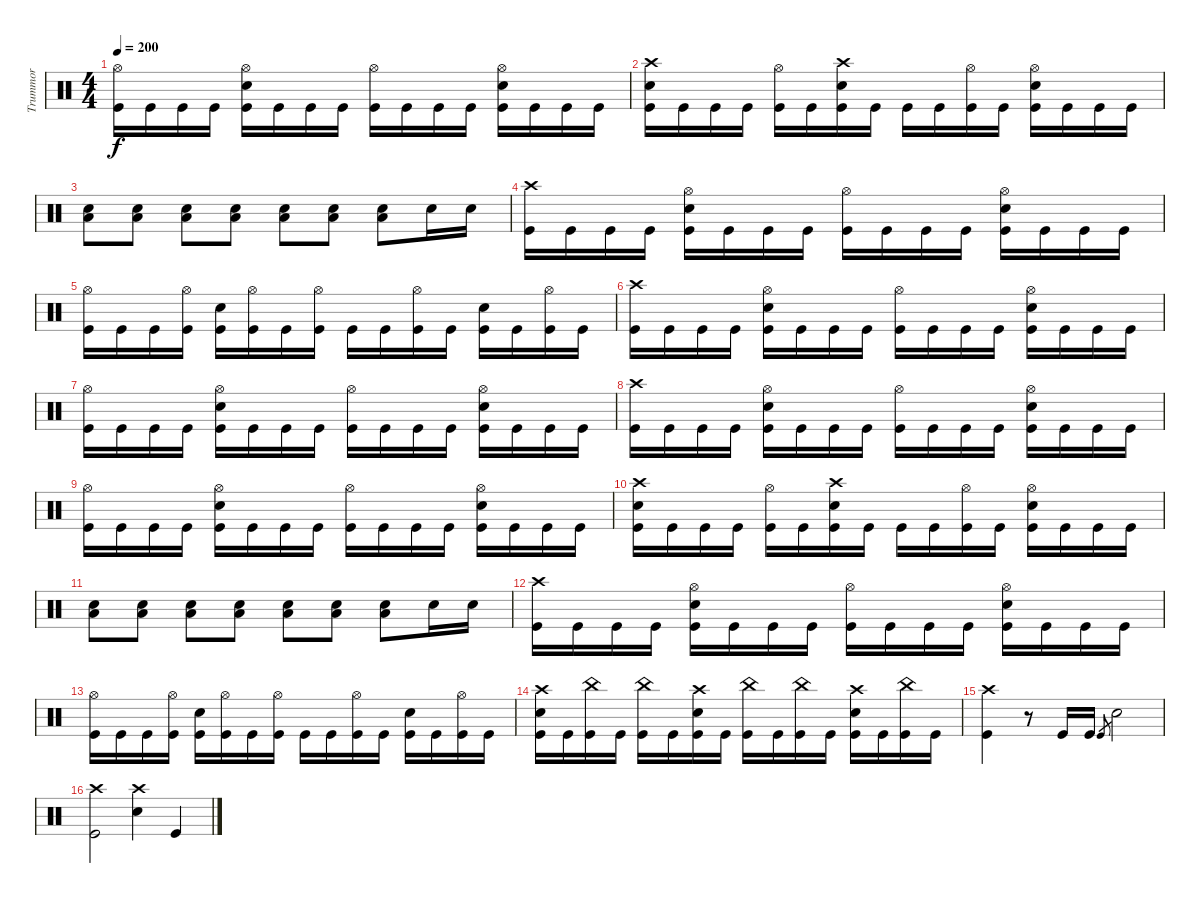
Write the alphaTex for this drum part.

\track ("Trummor" "Trummor") {instrument percussion}
\staff {score}
\articulation defaults
\ts (4 4)
\tempo 200
\clef neutral
\ks c
("Hi-Hat (open)" "Kick (hit)").16{dy f} "Kick (hit)".16 "Kick (hit)".16 "Kick (hit)".16 ("Hi-Hat (open)" "Electric Snare (hit)" "Kick (hit)").16 "Kick (hit)".16 "Kick (hit)".16 "Kick (hit)".16 ("Hi-Hat (open)" "Kick (hit)").16 "Kick (hit)".16 "Kick (hit)".16 "Kick (hit)".16 ("Hi-Hat (open)" "Electric Snare (hit)" "Kick (hit)").16 "Kick (hit)".16 "Kick (hit)".16 "Kick (hit)".16 |
("Crash high (hit)" "Electric Snare (hit)" "Kick (hit)").16 "Kick (hit)".16 "Kick (hit)".16 "Kick (hit)".16 ("Hi-Hat (open)" "Kick (hit)").16 "Kick (hit)".16 ("Crash high (hit)" "Electric Snare (hit)" "Kick (hit)").16 "Kick (hit)".16 "Kick (hit)".16 "Kick (hit)".16 ("Hi-Hat (open)" "Kick (hit)").16 "Kick (hit)".16 ("Hi-Hat (open)" "Electric Snare (hit)" "Kick (hit)").16 "Kick (hit)".16 "Kick (hit)".16 "Kick (hit)".16 |
("Electric Snare (hit)" "Low Floor Tom (hit)").8 ("Electric Snare (hit)" "Low Floor Tom (hit)").8 ("Electric Snare (hit)" "Low Floor Tom (hit)").8 ("Electric Snare (hit)" "Low Floor Tom (hit)").8 ("Electric Snare (hit)" "Low Floor Tom (hit)").8 ("Electric Snare (hit)" "Low Floor Tom (hit)").8 ("Electric Snare (hit)" "Low Floor Tom (hit)").8 "Electric Snare (hit)".16 "Electric Snare (hit)".16 |
("Crash high (hit)" "Kick (hit)").16 "Kick (hit)".16 "Kick (hit)".16 "Kick (hit)".16 ("Hi-Hat (open)" "Electric Snare (hit)" "Kick (hit)").16 "Kick (hit)".16 "Kick (hit)".16 "Kick (hit)".16 ("Hi-Hat (open)" "Kick (hit)").16 "Kick (hit)".16 "Kick (hit)".16 "Kick (hit)".16 ("Hi-Hat (open)" "Electric Snare (hit)" "Kick (hit)").16 "Kick (hit)".16 "Kick (hit)".16 "Kick (hit)".16 |
("Hi-Hat (open)" "Kick (hit)").16 "Kick (hit)".16 "Kick (hit)".16 ("Hi-Hat (open)" "Kick (hit)").16 ("Electric Snare (hit)" "Kick (hit)").16 ("Hi-Hat (open)" "Kick (hit)").16 "Kick (hit)".16 ("Hi-Hat (open)" "Kick (hit)").16 "Kick (hit)".16 "Kick (hit)".16 ("Hi-Hat (open)" "Kick (hit)").16 "Kick (hit)".16 ("Electric Snare (hit)" "Kick (hit)").16 "Kick (hit)".16 ("Hi-Hat (open)" "Kick (hit)").16 "Kick (hit)".16 |
("Crash high (hit)" "Kick (hit)").16 "Kick (hit)".16 "Kick (hit)".16 "Kick (hit)".16 ("Hi-Hat (open)" "Electric Snare (hit)" "Kick (hit)").16 "Kick (hit)".16 "Kick (hit)".16 "Kick (hit)".16 ("Hi-Hat (open)" "Kick (hit)").16 "Kick (hit)".16 "Kick (hit)".16 "Kick (hit)".16 ("Hi-Hat (open)" "Electric Snare (hit)" "Kick (hit)").16 "Kick (hit)".16 "Kick (hit)".16 "Kick (hit)".16 |
("Hi-Hat (open)" "Kick (hit)").16 "Kick (hit)".16 "Kick (hit)".16 "Kick (hit)".16 ("Hi-Hat (open)" "Electric Snare (hit)" "Kick (hit)").16 "Kick (hit)".16 "Kick (hit)".16 "Kick (hit)".16 ("Hi-Hat (open)" "Kick (hit)").16 "Kick (hit)".16 "Kick (hit)".16 "Kick (hit)".16 ("Hi-Hat (open)" "Electric Snare (hit)" "Kick (hit)").16 "Kick (hit)".16 "Kick (hit)".16 "Kick (hit)".16 |
("Crash high (hit)" "Kick (hit)").16 "Kick (hit)".16 "Kick (hit)".16 "Kick (hit)".16 ("Hi-Hat (open)" "Electric Snare (hit)" "Kick (hit)").16 "Kick (hit)".16 "Kick (hit)".16 "Kick (hit)".16 ("Hi-Hat (open)" "Kick (hit)").16 "Kick (hit)".16 "Kick (hit)".16 "Kick (hit)".16 ("Hi-Hat (open)" "Electric Snare (hit)" "Kick (hit)").16 "Kick (hit)".16 "Kick (hit)".16 "Kick (hit)".16 |
("Hi-Hat (open)" "Kick (hit)").16 "Kick (hit)".16 "Kick (hit)".16 "Kick (hit)".16 ("Hi-Hat (open)" "Electric Snare (hit)" "Kick (hit)").16 "Kick (hit)".16 "Kick (hit)".16 "Kick (hit)".16 ("Hi-Hat (open)" "Kick (hit)").16 "Kick (hit)".16 "Kick (hit)".16 "Kick (hit)".16 ("Hi-Hat (open)" "Electric Snare (hit)" "Kick (hit)").16 "Kick (hit)".16 "Kick (hit)".16 "Kick (hit)".16 |
("Crash high (hit)" "Electric Snare (hit)" "Kick (hit)").16 "Kick (hit)".16 "Kick (hit)".16 "Kick (hit)".16 ("Hi-Hat (open)" "Kick (hit)").16 "Kick (hit)".16 ("Crash high (hit)" "Electric Snare (hit)" "Kick (hit)").16 "Kick (hit)".16 "Kick (hit)".16 "Kick (hit)".16 ("Hi-Hat (open)" "Kick (hit)").16 "Kick (hit)".16 ("Hi-Hat (open)" "Electric Snare (hit)" "Kick (hit)").16 "Kick (hit)".16 "Kick (hit)".16 "Kick (hit)".16 |
("Electric Snare (hit)" "Low Floor Tom (hit)").8 ("Electric Snare (hit)" "Low Floor Tom (hit)").8 ("Electric Snare (hit)" "Low Floor Tom (hit)").8 ("Electric Snare (hit)" "Low Floor Tom (hit)").8 ("Electric Snare (hit)" "Low Floor Tom (hit)").8 ("Electric Snare (hit)" "Low Floor Tom (hit)").8 ("Electric Snare (hit)" "Low Floor Tom (hit)").8 "Electric Snare (hit)".16 "Electric Snare (hit)".16 |
("Crash high (hit)" "Kick (hit)").16 "Kick (hit)".16 "Kick (hit)".16 "Kick (hit)".16 ("Hi-Hat (open)" "Electric Snare (hit)" "Kick (hit)").16 "Kick (hit)".16 "Kick (hit)".16 "Kick (hit)".16 ("Hi-Hat (open)" "Kick (hit)").16 "Kick (hit)".16 "Kick (hit)".16 "Kick (hit)".16 ("Hi-Hat (open)" "Electric Snare (hit)" "Kick (hit)").16 "Kick (hit)".16 "Kick (hit)".16 "Kick (hit)".16 |
("Hi-Hat (open)" "Kick (hit)").16 "Kick (hit)".16 "Kick (hit)".16 ("Hi-Hat (open)" "Kick (hit)").16 ("Electric Snare (hit)" "Kick (hit)").16 ("Hi-Hat (open)" "Kick (hit)").16 "Kick (hit)".16 ("Hi-Hat (open)" "Kick (hit)").16 "Kick (hit)".16 "Kick (hit)".16 ("Hi-Hat (open)" "Kick (hit)").16 "Kick (hit)".16 ("Electric Snare (hit)" "Kick (hit)").16 "Kick (hit)".16 ("Hi-Hat (open)" "Kick (hit)").16 "Kick (hit)".16 |
("Crash high (hit)" "Electric Snare (hit)" "Kick (hit)").16 "Kick (hit)".16 ("China (hit)" "Kick (hit)").16 "Kick (hit)".16 ("China (hit)" "Kick (hit)").16 "Kick (hit)".16 ("Crash high (hit)" "Electric Snare (hit)" "Kick (hit)").16 "Kick (hit)".16 ("China (hit)" "Kick (hit)").16 "Kick (hit)".16 ("China (hit)" "Kick (hit)").16 "Kick (hit)".16 ("Crash high (hit)" "Electric Snare (hit)" "Kick (hit)").16 "Kick (hit)".16 ("China (hit)" "Kick (hit)").16 "Kick (hit)".16 |
("Crash high (hit)" "Kick (hit)").4 r.8 "Kick (hit)".16 "Kick (hit)".16 "Kick (hit)"{sl}.8{gr} "Electric Snare (hit)".2 |
("Crash high (hit)" "Kick (hit)").2 ("Crash high (hit)" "Electric Snare (hit)").4 "Kick (hit)".4
